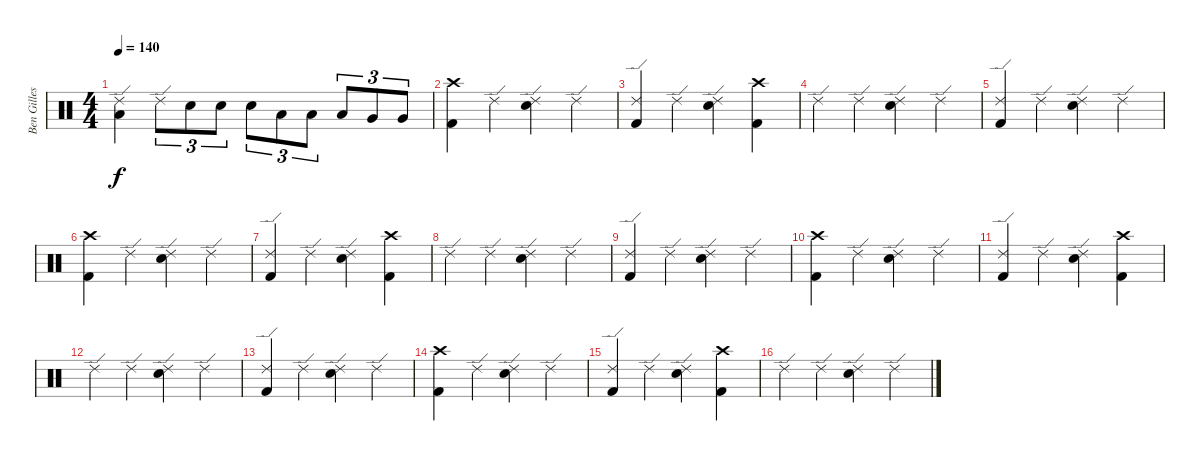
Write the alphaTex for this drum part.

\track ("Ben Gilles" "Ben Gilles") {instrument percussion}
\staff {score}
\articulation defaults
\ts (4 4)
\tempo 140
\clef neutral
\ks c
("Ride (edge) 2" "Low Tom (hit)").4{dy f} "Ride (edge) 2".8{tu (3 2)} "Electric Snare (hit)".8{tu (3 2)} "Electric Snare (hit)".8{tu (3 2)} "Electric Snare (hit)".8{tu (3 2)} "Low Tom (hit)".8{tu (3 2)} "Low Tom (hit)".8{tu (3 2)} "Low Tom (hit)".8{tu (3 2)} "Very Low Tom (hit)".8{tu (3 2)} "Very Low Tom (hit)".8{tu (3 2)} |
("Crash high (hit)" "Kick (hit) 2").4 "Ride (edge) 2".4 ("Ride (edge) 2" "Electric Snare (hit)").4 "Ride (edge) 2".4 |
("Ride (edge) 2" "Kick (hit) 2").4 "Ride (edge) 2".4 ("Ride (edge) 2" "Electric Snare (hit)").4 ("Crash high (hit)" "Kick (hit) 2").4 |
"Ride (edge) 2".4 "Ride (edge) 2".4 ("Ride (edge) 2" "Electric Snare (hit)").4 "Ride (edge) 2".4 |
("Ride (edge) 2" "Kick (hit) 2").4 "Ride (edge) 2".4 ("Ride (edge) 2" "Electric Snare (hit)").4 "Ride (edge) 2".4 |
("Crash high (hit)" "Kick (hit) 2").4 "Ride (edge) 2".4 ("Ride (edge) 2" "Electric Snare (hit)").4 "Ride (edge) 2".4 |
("Ride (edge) 2" "Kick (hit) 2").4 "Ride (edge) 2".4 ("Ride (edge) 2" "Electric Snare (hit)").4 ("Crash high (hit)" "Kick (hit) 2").4 |
"Ride (edge) 2".4 "Ride (edge) 2".4 ("Ride (edge) 2" "Electric Snare (hit)").4 "Ride (edge) 2".4 |
("Ride (edge) 2" "Kick (hit) 2").4 "Ride (edge) 2".4 ("Ride (edge) 2" "Electric Snare (hit)").4 "Ride (edge) 2".4 |
("Crash high (hit)" "Kick (hit) 2").4 "Ride (edge) 2".4 ("Ride (edge) 2" "Electric Snare (hit)").4 "Ride (edge) 2".4 |
("Ride (edge) 2" "Kick (hit) 2").4 "Ride (edge) 2".4 ("Ride (edge) 2" "Electric Snare (hit)").4 ("Crash high (hit)" "Kick (hit) 2").4 |
"Ride (edge) 2".4 "Ride (edge) 2".4 ("Ride (edge) 2" "Electric Snare (hit)").4 "Ride (edge) 2".4 |
("Ride (edge) 2" "Kick (hit) 2").4 "Ride (edge) 2".4 ("Ride (edge) 2" "Electric Snare (hit)").4 "Ride (edge) 2".4 |
("Crash high (hit)" "Kick (hit) 2").4 "Ride (edge) 2".4 ("Ride (edge) 2" "Electric Snare (hit)").4 "Ride (edge) 2".4 |
("Ride (edge) 2" "Kick (hit) 2").4 "Ride (edge) 2".4 ("Ride (edge) 2" "Electric Snare (hit)").4 ("Crash high (hit)" "Kick (hit) 2").4 |
"Ride (edge) 2".4 "Ride (edge) 2".4 ("Ride (edge) 2" "Electric Snare (hit)").4 "Ride (edge) 2".4
